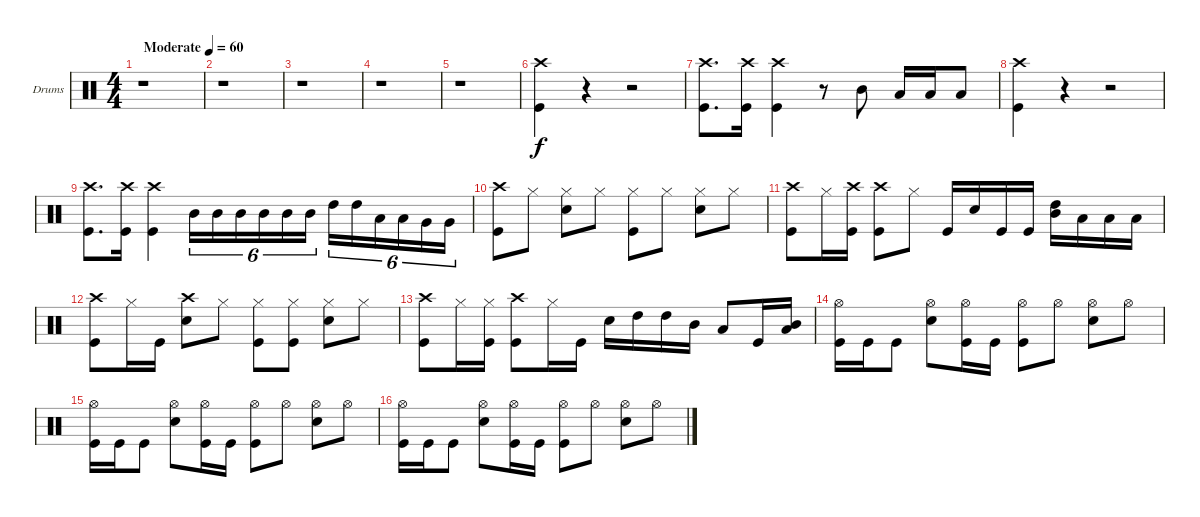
\bracketExtendMode groupsimilarinstruments
\firstSystemTrackNameOrientation horizontal
\otherSystemsTrackNameOrientation horizontal
\track ("Drumkit" "Drums") {instrument percussion}
\staff {score}
\articulation defaults
\ts (4 4)
\beaming (8 2 2 2 2)
\tempo (60 "Moderate")
\clef neutral
\ks c
r.1{dy f} |
r.1 |
r.1 |
r.1 |
r.1 |
("Crash high (hit)" "Kick (hit)").4 r.4 r.2 |
("Crash high (hit)" "Kick (hit)").8{d} ("Crash high (hit)" "Kick (hit)").16 ("Crash high (hit)" "Kick (hit)").4 r.8 "Mid Tom (hit)".8 "Low Tom (hit)".16 "Low Tom (hit)".16 "Low Tom (hit)".8 |
("Crash high (hit)" "Kick (hit)").4 r.4 r.2 |
("Crash high (hit)" "Kick (hit)").8{d} ("Crash high (hit)" "Kick (hit)").16 ("Crash high (hit)" "Kick (hit)").4 "Mid Tom (hit)".16{tu (6 4)} "Mid Tom (hit)".16{tu (6 4)} "Mid Tom (hit)".16{tu (6 4)} "Mid Tom (hit)".16{tu (6 4)} "Mid Tom (hit)".16{tu (6 4)} "Mid Tom (hit)".16{tu (6 4)} "High Tom (hit)".16{tu (6 4)} "High Tom (hit)".16{tu (6 4)} "Low Tom (hit)".16{tu (6 4)} "Low Tom (hit)".16{tu (6 4)} "Very Low Tom (hit)".16{tu (6 4)} "Very Low Tom (hit)".16{tu (6 4)} |
("Crash high (hit)" "Kick (hit)").8 "Hi-Hat (closed)".8 ("Hi-Hat (closed)" "Snare (hit) 2").8 "Hi-Hat (closed)".8 ("Hi-Hat (closed)" "Kick (hit)").8 "Hi-Hat (closed)".8 ("Hi-Hat (closed)" "Snare (hit) 2").8 "Hi-Hat (closed)".8 |
("Crash high (hit)" "Kick (hit)").8 "Hi-Hat (closed)".16 ("Crash high (hit)" "Kick (hit)").16 ("Crash high (hit)" "Kick (hit)").8 "Hi-Hat (closed)".8 "Kick (hit)".16 "Snare (hit) 2".16 "Kick (hit)".16 "Kick (hit)".16 ("High Tom (hit)" "Mid Tom (hit)").16 "Low Tom (hit)".16 "Low Tom (hit)".16 "Low Tom (hit)".16 |
("Crash high (hit)" "Kick (hit)").8 "Hi-Hat (closed)".16 "Kick (hit)".16 ("Crash high (hit)" "Snare (hit) 2").8 "Hi-Hat (closed)".8 ("Hi-Hat (closed)" "Kick (hit)").8 ("Hi-Hat (closed)" "Kick (hit)").8 ("Hi-Hat (closed)" "Snare (hit) 2").8 "Hi-Hat (closed)".8 |
("Crash high (hit)" "Kick (hit)").8 "Hi-Hat (closed)".16 ("Hi-Hat (closed)" "Kick (hit)").16 ("Crash high (hit)" "Kick (hit)").8 "Hi-Hat (closed)".16 "Kick (hit)".16 "Snare (hit) 2".16 "High Tom (hit)".16 "High Tom (hit)".16 "Mid Tom (hit)".16 "Low Tom (hit)".8 "Kick (hit)".16 ("Mid Tom (hit)" "Low Tom (hit)").16 |
("Hi-Hat (open)" "Kick (hit)").16 "Kick (hit)".16 "Kick (hit)".8 ("Hi-Hat (open)" "Snare (hit) 2").8 ("Hi-Hat (open)" "Kick (hit)").16 "Kick (hit)".16 ("Hi-Hat (open)" "Kick (hit)").8 "Hi-Hat (open)".8 ("Hi-Hat (open)" "Snare (hit) 2").8 "Hi-Hat (open)".8 |
("Hi-Hat (open)" "Kick (hit)").16 "Kick (hit)".16 "Kick (hit)".8 ("Hi-Hat (open)" "Snare (hit) 2").8 ("Hi-Hat (open)" "Kick (hit)").16 "Kick (hit)".16 ("Hi-Hat (open)" "Kick (hit)").8 "Hi-Hat (open)".8 ("Hi-Hat (open)" "Snare (hit) 2").8 "Hi-Hat (open)".8 |
("Hi-Hat (open)" "Kick (hit)").16 "Kick (hit)".16 "Kick (hit)".8 ("Hi-Hat (open)" "Snare (hit) 2").8 ("Hi-Hat (open)" "Kick (hit)").16 "Kick (hit)".16 ("Hi-Hat (open)" "Kick (hit)").8 "Hi-Hat (open)".8 ("Hi-Hat (open)" "Snare (hit) 2").8 "Hi-Hat (open)".8
